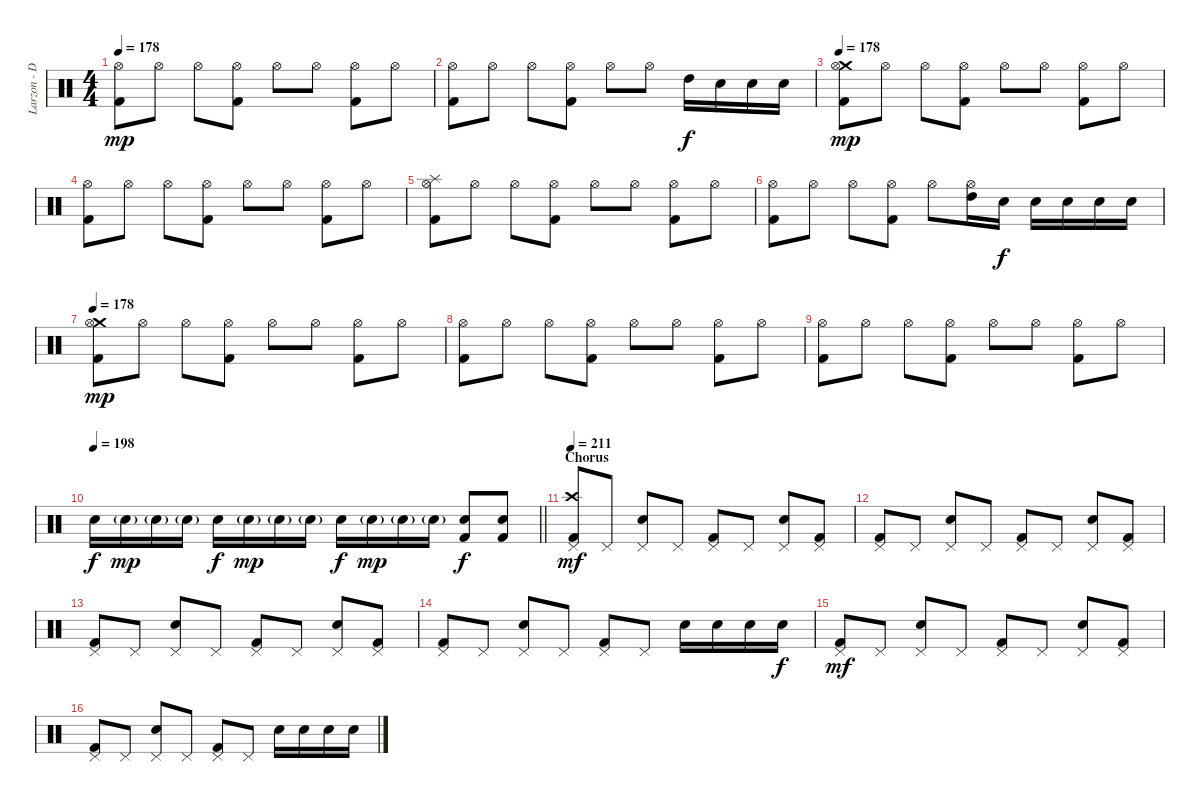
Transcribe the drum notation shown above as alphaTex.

\track ("Larzon - Drums" "Larzon - D") {instrument percussion}
\staff {score}
\articulation defaults
\ts (4 4)
\tempo 178
\clef neutral
\ks c
("Kick (hit) 2" "Hi-Hat (open)").8{dy mp} "Hi-Hat (open)".8 "Hi-Hat (open)".8 ("Kick (hit) 2" "Hi-Hat (open)").8 "Hi-Hat (open)".8 "Hi-Hat (open)".8 ("Kick (hit) 2" "Hi-Hat (open)").8 "Hi-Hat (open)".8 |
("Kick (hit) 2" "Hi-Hat (open)").8 "Hi-Hat (open)".8 "Hi-Hat (open)".8 ("Kick (hit) 2" "Hi-Hat (open)").8 "Hi-Hat (open)".8 "Hi-Hat (open)".8 "High Tom (hit)".16{dy f} "Snare (hit) 2".16 "Snare (hit) 2".16 "Snare (hit) 2".16 |
\tempo 178
("Kick (hit) 2" "Crash medium (hit)" "Hi-Hat (open)").8{dy mp} "Hi-Hat (open)".8 "Hi-Hat (open)".8 ("Kick (hit) 2" "Hi-Hat (open)").8 "Hi-Hat (open)".8 "Hi-Hat (open)".8 ("Kick (hit) 2" "Hi-Hat (open)").8 "Hi-Hat (open)".8 |
("Kick (hit) 2" "Hi-Hat (open)").8 "Hi-Hat (open)".8 "Hi-Hat (open)".8 ("Kick (hit) 2" "Hi-Hat (open)").8 "Hi-Hat (open)".8 "Hi-Hat (open)".8 ("Kick (hit) 2" "Hi-Hat (open)").8 "Hi-Hat (open)".8 |
("Kick (hit) 2" "Splash (hit)" "Hi-Hat (open)").8 "Hi-Hat (open)".8 "Hi-Hat (open)".8 ("Kick (hit) 2" "Hi-Hat (open)").8 "Hi-Hat (open)".8 "Hi-Hat (open)".8 ("Kick (hit) 2" "Hi-Hat (open)").8 "Hi-Hat (open)".8 |
("Kick (hit) 2" "Hi-Hat (open)").8 "Hi-Hat (open)".8 "Hi-Hat (open)".8 ("Kick (hit) 2" "Hi-Hat (open)").8 "Hi-Hat (open)".8 ("High Tom (hit)" "Hi-Hat (open)").16 "Snare (hit) 2".16{dy f} "Snare (hit) 2".16 "Snare (hit) 2".16 "Snare (hit) 2".16 "Snare (hit) 2".16 |
\tempo 178
("Kick (hit) 2" "Crash medium (hit)" "Hi-Hat (open)").8{dy mp} "Hi-Hat (open)".8 "Hi-Hat (open)".8 ("Kick (hit) 2" "Hi-Hat (open)").8 "Hi-Hat (open)".8 "Hi-Hat (open)".8 ("Kick (hit) 2" "Hi-Hat (open)").8 "Hi-Hat (open)".8 |
("Kick (hit) 2" "Hi-Hat (open)").8 "Hi-Hat (open)".8 "Hi-Hat (open)".8 ("Kick (hit) 2" "Hi-Hat (open)").8 "Hi-Hat (open)".8 "Hi-Hat (open)".8 ("Kick (hit) 2" "Hi-Hat (open)").8 "Hi-Hat (open)".8 |
("Kick (hit) 2" "Hi-Hat (open)").8 "Hi-Hat (open)".8 "Hi-Hat (open)".8 ("Kick (hit) 2" "Hi-Hat (open)").8 "Hi-Hat (open)".8 "Hi-Hat (open)".8 ("Kick (hit) 2" "Hi-Hat (open)").8 "Hi-Hat (open)".8 |
\tempo 198
\barLineRight lightlight "Snare (hit) 2".16{dy f} "Snare (hit) 2"{g}.16{dy mp} "Snare (hit) 2"{g}.16 "Snare (hit) 2"{g}.16 "Snare (hit) 2".16{dy f} "Snare (hit) 2"{g}.16{dy mp} "Snare (hit) 2"{g}.16 "Snare (hit) 2"{g}.16 "Snare (hit) 2".16{dy f} "Snare (hit) 2"{g}.16{dy mp} "Snare (hit) 2"{g}.16 "Snare (hit) 2"{g}.16
("Snare (hit) 2" "Kick (hit) 2").8{dy f} ("Snare (hit) 2" "Kick (hit) 2").8 |
\section ("" "Chorus")
\tempo 211
("Kick (hit) 2" "Crash high (hit)" "Pedal Hi-Hat (hit)").8{dy mf} "Pedal Hi-Hat (hit)".8 ("Snare (hit) 2" "Pedal Hi-Hat (hit)").8 "Pedal Hi-Hat (hit)".8 ("Kick (hit) 2" "Pedal Hi-Hat (hit)").8 "Pedal Hi-Hat (hit)".8 ("Snare (hit) 2" "Pedal Hi-Hat (hit)").8 ("Kick (hit) 2" "Pedal Hi-Hat (hit)").8 |
("Kick (hit) 2" "Pedal Hi-Hat (hit)").8 "Pedal Hi-Hat (hit)".8 ("Snare (hit) 2" "Pedal Hi-Hat (hit)").8 "Pedal Hi-Hat (hit)".8 ("Kick (hit) 2" "Pedal Hi-Hat (hit)").8 "Pedal Hi-Hat (hit)".8 ("Snare (hit) 2" "Pedal Hi-Hat (hit)").8 ("Kick (hit) 2" "Pedal Hi-Hat (hit)").8 |
("Kick (hit) 2" "Pedal Hi-Hat (hit)").8 "Pedal Hi-Hat (hit)".8 ("Snare (hit) 2" "Pedal Hi-Hat (hit)").8 "Pedal Hi-Hat (hit)".8 ("Kick (hit) 2" "Pedal Hi-Hat (hit)").8 "Pedal Hi-Hat (hit)".8 ("Snare (hit) 2" "Pedal Hi-Hat (hit)").8 ("Kick (hit) 2" "Pedal Hi-Hat (hit)").8 |
("Kick (hit) 2" "Pedal Hi-Hat (hit)").8 "Pedal Hi-Hat (hit)".8 ("Snare (hit) 2" "Pedal Hi-Hat (hit)").8 "Pedal Hi-Hat (hit)".8 ("Kick (hit) 2" "Pedal Hi-Hat (hit)").8 "Pedal Hi-Hat (hit)".8 "Snare (hit) 2".16 "Snare (hit) 2".16 "Snare (hit) 2".16 "Snare (hit) 2".16{dy f} |
("Kick (hit) 2" "Pedal Hi-Hat (hit)").8{dy mf} "Pedal Hi-Hat (hit)".8 ("Snare (hit) 2" "Pedal Hi-Hat (hit)").8 "Pedal Hi-Hat (hit)".8 ("Kick (hit) 2" "Pedal Hi-Hat (hit)").8 "Pedal Hi-Hat (hit)".8 ("Snare (hit) 2" "Pedal Hi-Hat (hit)").8 ("Kick (hit) 2" "Pedal Hi-Hat (hit)").8 |
("Kick (hit) 2" "Pedal Hi-Hat (hit)").8 "Pedal Hi-Hat (hit)".8 ("Snare (hit) 2" "Pedal Hi-Hat (hit)").8 "Pedal Hi-Hat (hit)".8 ("Kick (hit) 2" "Pedal Hi-Hat (hit)").8 "Pedal Hi-Hat (hit)".8 "Snare (hit) 2".16 "Snare (hit) 2".16 "Snare (hit) 2".16 "Snare (hit) 2".16
